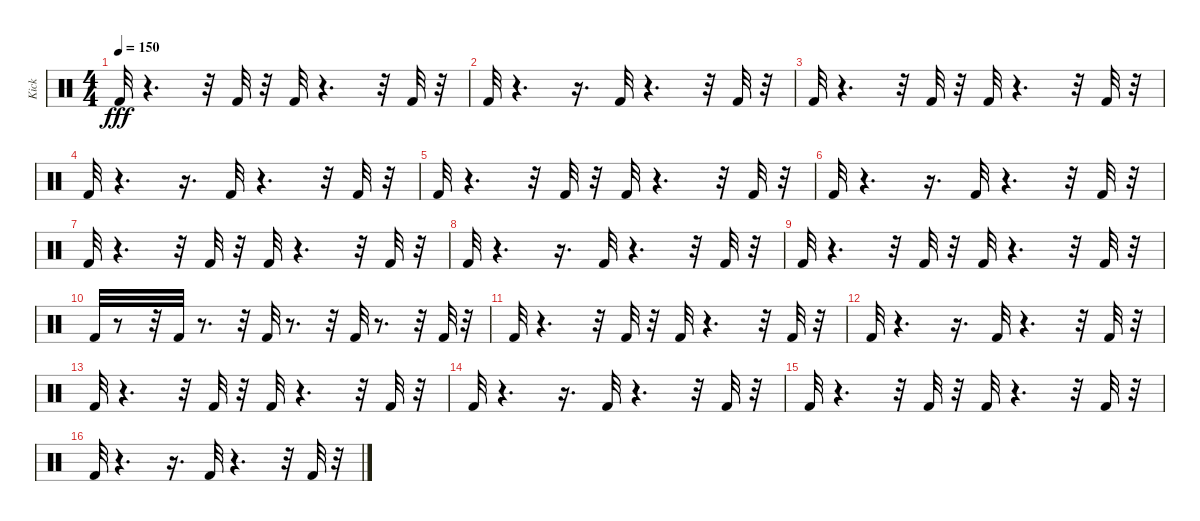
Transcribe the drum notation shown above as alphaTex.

\track ("Kick" "Kick") {instrument percussion}
\staff {score}
\articulation defaults
\ts (4 4)
\tempo 150
\clef neutral
\ks c "Kick (hit) 2".32{dy fff}
r.4{d} r.32 "Kick (hit) 2".32 r.32 "Kick (hit) 2".32 r.4{d} r.32 "Kick (hit) 2".32 r.32 |
"Kick (hit) 2".32 r.4{d} r.16{d} "Kick (hit) 2".32 r.4{d} r.32 "Kick (hit) 2".32 r.32 |
"Kick (hit) 2".32 r.4{d} r.32 "Kick (hit) 2".32 r.32 "Kick (hit) 2".32 r.4{d} r.32 "Kick (hit) 2".32 r.32 |
"Kick (hit) 2".32 r.4{d} r.16{d} "Kick (hit) 2".32 r.4{d} r.32 "Kick (hit) 2".32 r.32 |
"Kick (hit) 2".32 r.4{d} r.32 "Kick (hit) 2".32 r.32 "Kick (hit) 2".32 r.4{d} r.32 "Kick (hit) 2".32 r.32 |
"Kick (hit) 2".32 r.4{d} r.16{d} "Kick (hit) 2".32 r.4{d} r.32 "Kick (hit) 2".32 r.32 |
"Kick (hit) 2".32 r.4{d} r.32 "Kick (hit) 2".32 r.32 "Kick (hit) 2".32 r.4{d} r.32 "Kick (hit) 2".32 r.32 |
"Kick (hit) 2".32 r.4{d} r.16{d} "Kick (hit) 2".32 r.4{d} r.32 "Kick (hit) 2".32 r.32 |
"Kick (hit) 2".32 r.4{d} r.32 "Kick (hit) 2".32 r.32 "Kick (hit) 2".32 r.4{d} r.32 "Kick (hit) 2".32 r.32 |
"Kick (hit) 2".32 r.8 r.32 "Kick (hit) 2".32 r.8{d} r.32 "Kick (hit) 2".32 r.8{d} r.32 "Kick (hit) 2".32 r.8{d} r.32 "Kick (hit) 2".32 r.32 |
"Kick (hit) 2".32 r.4{d} r.32 "Kick (hit) 2".32 r.32 "Kick (hit) 2".32 r.4{d} r.32 "Kick (hit) 2".32 r.32 |
"Kick (hit) 2".32 r.4{d} r.16{d} "Kick (hit) 2".32 r.4{d} r.32 "Kick (hit) 2".32 r.32 |
"Kick (hit) 2".32 r.4{d} r.32 "Kick (hit) 2".32 r.32 "Kick (hit) 2".32 r.4{d} r.32 "Kick (hit) 2".32 r.32 |
"Kick (hit) 2".32 r.4{d} r.16{d} "Kick (hit) 2".32 r.4{d} r.32 "Kick (hit) 2".32 r.32 |
"Kick (hit) 2".32 r.4{d} r.32 "Kick (hit) 2".32 r.32 "Kick (hit) 2".32 r.4{d} r.32 "Kick (hit) 2".32 r.32 |
"Kick (hit) 2".32 r.4{d} r.16{d} "Kick (hit) 2".32 r.4{d} r.32 "Kick (hit) 2".32 r.32
